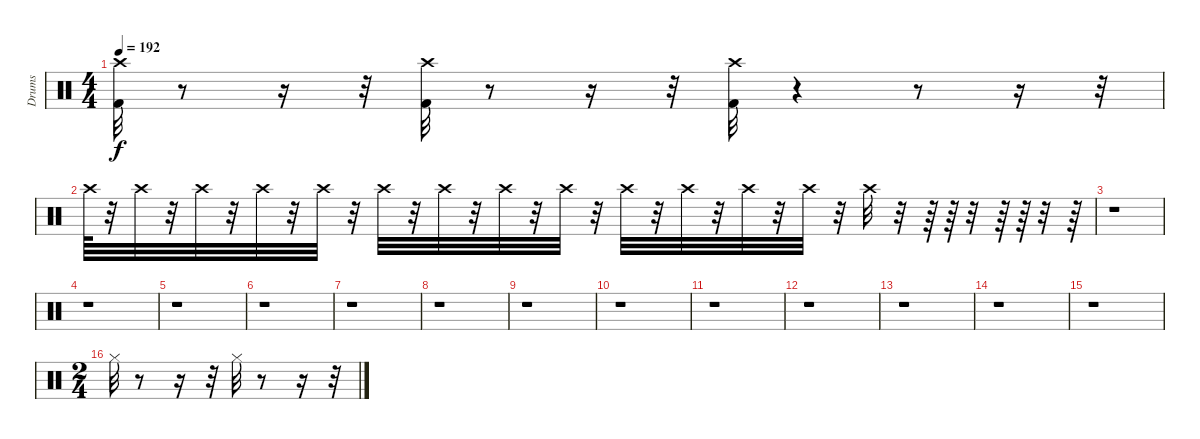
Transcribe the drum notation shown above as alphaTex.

\track ("Drums" "Drums") {instrument percussion}
\staff {score}
\articulation defaults
\ts (4 4)
\tempo 192
\clef neutral
\ks c
("Crash high (hit)" "Kick (hit) 2").32{dy f} r.8 r.16 r.32 ("Crash high (hit)" "Kick (hit) 2").32 r.8 r.16 r.32 ("Crash high (hit)" "Kick (hit) 2").32 r.4 r.8 r.16 r.32 |
"Crash high (hit)".64 r.32 "Crash high (hit)".32 r.32 "Crash high (hit)".32 r.32 "Crash high (hit)".32 r.32 "Crash high (hit)".32 r.32 "Crash high (hit)".32 r.32 "Crash high (hit)".32 r.32 "Crash high (hit)".32 r.32 "Crash high (hit)".32 r.32 "Crash high (hit)".32 r.32 "Crash high (hit)".32 r.32 "Crash high (hit)".32 r.32 "Crash high (hit)".32 r.32 "Crash high (hit)".32 r.32 r.64 r.64 r.32 r.64 r.64 r.32 r.64 |
r.1 |
r.1 |
r.1 |
r.1 |
r.1 |
r.1 |
r.1 |
r.1 |
r.1 |
r.1 |
r.1 |
r.1 |
r.1 |
\ts (2 4)
"Hi-Hat (closed)".32 r.8 r.16 r.32 "Hi-Hat (closed)".32 r.8 r.16 r.32
